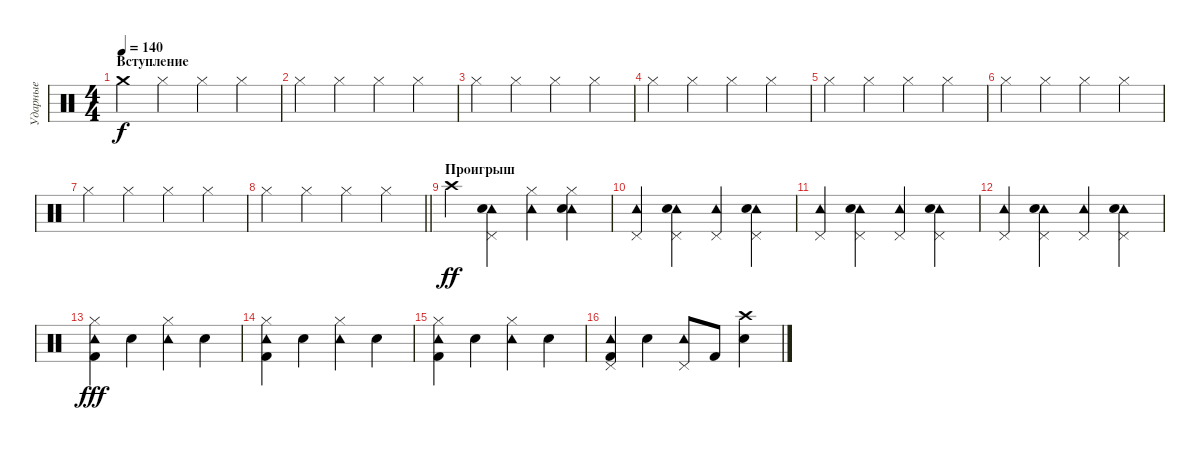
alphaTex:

\track ("Ударные" "Ударные") {instrument percussion}
\staff {score}
\articulation defaults
\ts (4 4)
\section ("" "Вступление")
\tempo 140
\clef neutral
\ks c "Crash medium (hit)".4{dy f} "Hi-Hat (closed)".4 "Hi-Hat (closed)".4 "Hi-Hat (closed)".4
|
"Hi-Hat (closed)".4 "Hi-Hat (closed)".4 "Hi-Hat (closed)".4 "Hi-Hat (closed)".4 |
"Hi-Hat (closed)".4 "Hi-Hat (closed)".4 "Hi-Hat (closed)".4 "Hi-Hat (closed)".4 |
"Hi-Hat (closed)".4 "Hi-Hat (closed)".4 "Hi-Hat (closed)".4 "Hi-Hat (closed)".4 |
"Hi-Hat (closed)".4 "Hi-Hat (closed)".4 "Hi-Hat (closed)".4 "Hi-Hat (closed)".4 |
"Hi-Hat (closed)".4 "Hi-Hat (closed)".4 "Hi-Hat (closed)".4 "Hi-Hat (closed)".4 |
"Hi-Hat (closed)".4 "Hi-Hat (closed)".4 "Hi-Hat (closed)".4 "Hi-Hat (closed)".4 |
\barLineRight lightlight "Hi-Hat (closed)".4 "Hi-Hat (closed)".4 "Hi-Hat (closed)".4 "Hi-Hat (closed)".4
|
\section ("" "Проигрыш")
"Crash high (hit)".4{dy ff} ("Tambourine (hit)" "Pedal Hi-Hat (hit)" "Electric Snare (hit)").4 ("Tambourine (hit)" "Hi-Hat (closed)").4 ("Tambourine (hit)" "Hi-Hat (closed)" "Electric Snare (hit)").4 |
("Tambourine (hit)" "Pedal Hi-Hat (hit)").4 ("Tambourine (hit)" "Pedal Hi-Hat (hit)" "Electric Snare (hit)").4 ("Tambourine (hit)" "Pedal Hi-Hat (hit)").4 ("Tambourine (hit)" "Pedal Hi-Hat (hit)" "Electric Snare (hit)").4 |
("Tambourine (hit)" "Pedal Hi-Hat (hit)").4 ("Tambourine (hit)" "Pedal Hi-Hat (hit)" "Electric Snare (hit)").4 ("Tambourine (hit)" "Pedal Hi-Hat (hit)").4 ("Tambourine (hit)" "Pedal Hi-Hat (hit)" "Electric Snare (hit)").4 |
("Tambourine (hit)" "Pedal Hi-Hat (hit)").4 ("Tambourine (hit)" "Pedal Hi-Hat (hit)" "Electric Snare (hit)").4 ("Tambourine (hit)" "Pedal Hi-Hat (hit)").4 ("Tambourine (hit)" "Pedal Hi-Hat (hit)" "Electric Snare (hit)").4 |
("Tambourine (hit)" "Hi-Hat (closed)" "Kick (hit) 2").4{dy fff} "Electric Snare (hit)".4 ("Tambourine (hit)" "Hi-Hat (closed)").4 "Electric Snare (hit)".4 |
("Tambourine (hit)" "Hi-Hat (closed)" "Kick (hit) 2").4 "Electric Snare (hit)".4 ("Tambourine (hit)" "Hi-Hat (closed)").4 "Electric Snare (hit)".4 |
("Tambourine (hit)" "Hi-Hat (closed)" "Kick (hit) 2").4 "Electric Snare (hit)".4 ("Tambourine (hit)" "Hi-Hat (closed)").4 "Electric Snare (hit)".4 |
("Tambourine (hit)" "Pedal Hi-Hat (hit)" "Kick (hit) 2").4 "Electric Snare (hit)".4 ("Tambourine (hit)" "Pedal Hi-Hat (hit)").8 "Kick (hit) 2".8 ("Crash high (hit)" "Electric Snare (hit)").4
